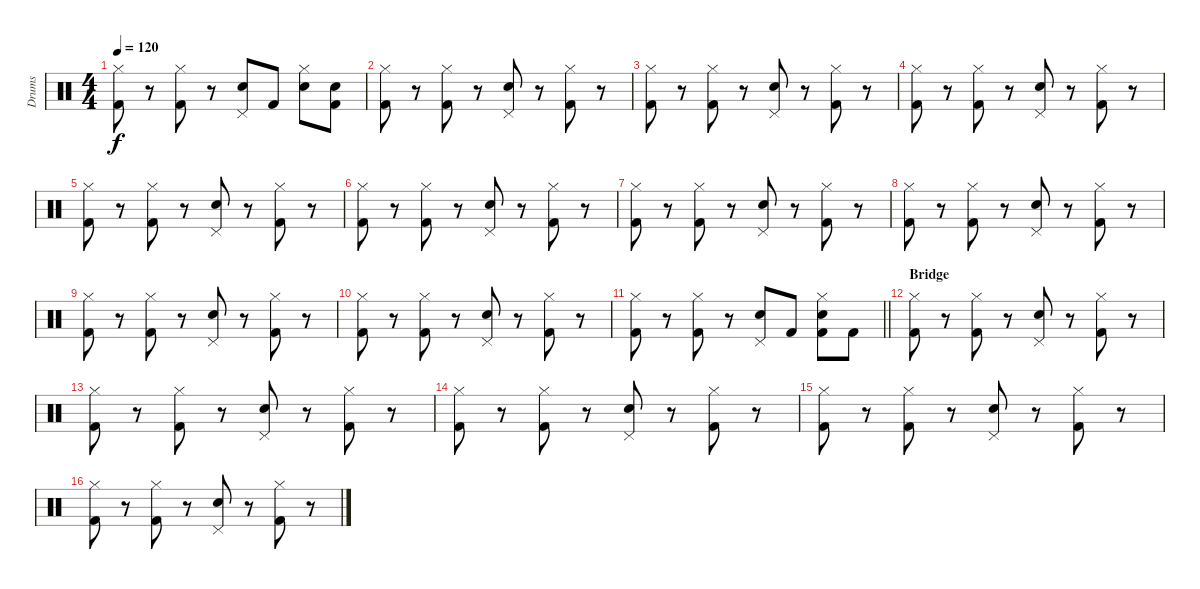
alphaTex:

\track ("Drums" "Drums") {instrument percussion}
\staff {score}
\articulation defaults
\ts (4 4)
\tempo 120
\clef neutral
\ks c
("Hi-Hat (closed)" "Kick (hit) 2").8{dy f} r.8 ("Hi-Hat (closed)" "Kick (hit) 2").8 r.8 ("Pedal Hi-Hat (hit)" "Electric Snare (hit)").8 "Kick (hit) 2".8 ("Hi-Hat (closed)" "Electric Snare (hit)").8 ("Electric Snare (hit)" "Kick (hit) 2").8 |
("Hi-Hat (closed)" "Kick (hit) 2").8 r.8 ("Hi-Hat (closed)" "Kick (hit) 2").8 r.8 ("Pedal Hi-Hat (hit)" "Electric Snare (hit)").8 r.8 ("Hi-Hat (closed)" "Kick (hit) 2").8 r.8 |
("Hi-Hat (closed)" "Kick (hit) 2").8 r.8 ("Hi-Hat (closed)" "Kick (hit) 2").8 r.8 ("Pedal Hi-Hat (hit)" "Electric Snare (hit)").8 r.8 ("Hi-Hat (closed)" "Kick (hit) 2").8 r.8 |
("Hi-Hat (closed)" "Kick (hit) 2").8 r.8 ("Hi-Hat (closed)" "Kick (hit) 2").8 r.8 ("Pedal Hi-Hat (hit)" "Electric Snare (hit)").8 r.8 ("Hi-Hat (closed)" "Kick (hit) 2").8 r.8 |
("Hi-Hat (closed)" "Kick (hit) 2").8 r.8 ("Hi-Hat (closed)" "Kick (hit) 2").8 r.8 ("Pedal Hi-Hat (hit)" "Electric Snare (hit)").8 r.8 ("Hi-Hat (closed)" "Kick (hit) 2").8 r.8 |
("Hi-Hat (closed)" "Kick (hit) 2").8 r.8 ("Hi-Hat (closed)" "Kick (hit) 2").8 r.8 ("Pedal Hi-Hat (hit)" "Electric Snare (hit)").8 r.8 ("Hi-Hat (closed)" "Kick (hit) 2").8 r.8 |
("Hi-Hat (closed)" "Kick (hit) 2").8 r.8 ("Hi-Hat (closed)" "Kick (hit) 2").8 r.8 ("Pedal Hi-Hat (hit)" "Electric Snare (hit)").8 r.8 ("Hi-Hat (closed)" "Kick (hit) 2").8 r.8 |
("Hi-Hat (closed)" "Kick (hit) 2").8 r.8 ("Hi-Hat (closed)" "Kick (hit) 2").8 r.8 ("Pedal Hi-Hat (hit)" "Electric Snare (hit)").8 r.8 ("Hi-Hat (closed)" "Kick (hit) 2").8 r.8 |
("Hi-Hat (closed)" "Kick (hit) 2").8 r.8 ("Hi-Hat (closed)" "Kick (hit) 2").8 r.8 ("Pedal Hi-Hat (hit)" "Electric Snare (hit)").8 r.8 ("Hi-Hat (closed)" "Kick (hit) 2").8 r.8 |
("Hi-Hat (closed)" "Kick (hit) 2").8 r.8 ("Hi-Hat (closed)" "Kick (hit) 2").8 r.8 ("Pedal Hi-Hat (hit)" "Electric Snare (hit)").8 r.8 ("Hi-Hat (closed)" "Kick (hit) 2").8 r.8 |
\barLineRight lightlight
("Hi-Hat (closed)" "Kick (hit) 2").8 r.8 ("Hi-Hat (closed)" "Kick (hit) 2").8 r.8 ("Pedal Hi-Hat (hit)" "Electric Snare (hit)").8 "Kick (hit) 2".8 ("Hi-Hat (closed)" "Electric Snare (hit)" "Kick (hit) 2").8 "Kick (hit) 2".8 |
\section ("" "Bridge")
("Hi-Hat (closed)" "Kick (hit) 2").8 r.8 ("Hi-Hat (closed)" "Kick (hit) 2").8 r.8 ("Pedal Hi-Hat (hit)" "Electric Snare (hit)").8 r.8 ("Hi-Hat (closed)" "Kick (hit) 2").8 r.8 |
("Hi-Hat (closed)" "Kick (hit) 2").8 r.8 ("Hi-Hat (closed)" "Kick (hit) 2").8 r.8 ("Pedal Hi-Hat (hit)" "Electric Snare (hit)").8 r.8 ("Hi-Hat (closed)" "Kick (hit) 2").8 r.8 |
("Hi-Hat (closed)" "Kick (hit) 2").8 r.8 ("Hi-Hat (closed)" "Kick (hit) 2").8 r.8 ("Pedal Hi-Hat (hit)" "Electric Snare (hit)").8 r.8 ("Hi-Hat (closed)" "Kick (hit) 2").8 r.8 |
("Hi-Hat (closed)" "Kick (hit) 2").8 r.8 ("Hi-Hat (closed)" "Kick (hit) 2").8 r.8 ("Pedal Hi-Hat (hit)" "Electric Snare (hit)").8 r.8 ("Hi-Hat (closed)" "Kick (hit) 2").8 r.8 |
("Hi-Hat (closed)" "Kick (hit) 2").8 r.8 ("Hi-Hat (closed)" "Kick (hit) 2").8 r.8 ("Pedal Hi-Hat (hit)" "Electric Snare (hit)").8 r.8 ("Hi-Hat (closed)" "Kick (hit) 2").8 r.8
